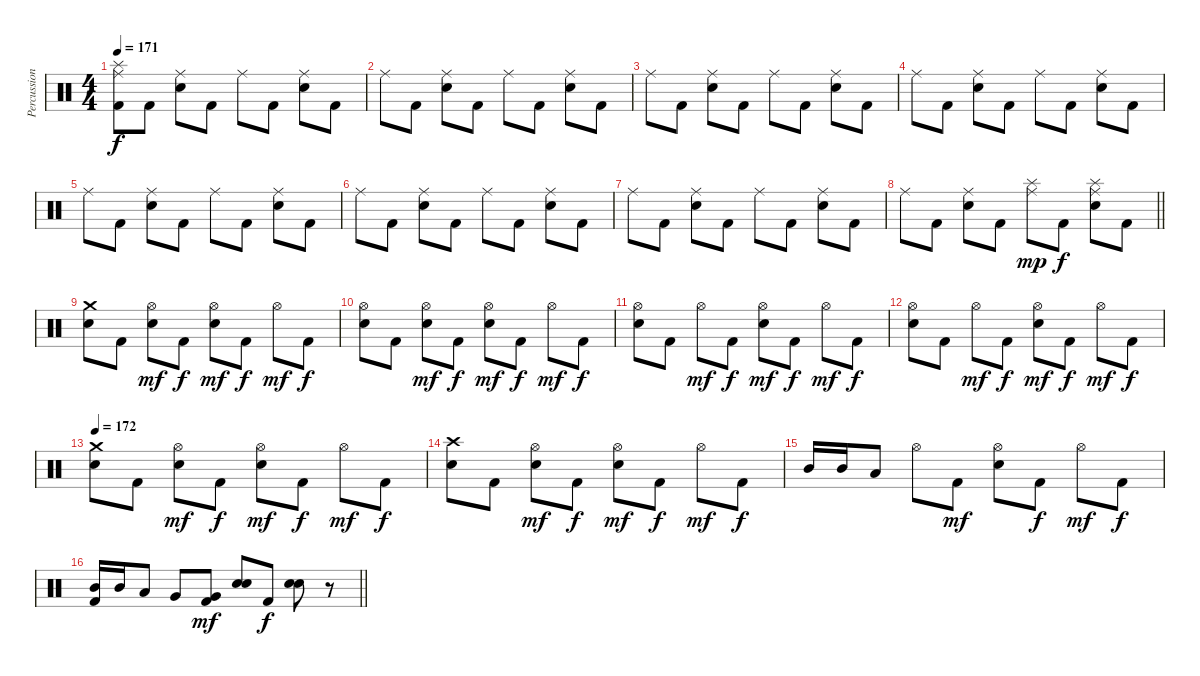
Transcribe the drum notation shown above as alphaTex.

\track ("Percussion" "Percussion") {instrument percussion}
\staff {score}
\articulation defaults
\ts (4 4)
\section ("" "")
\tempo 171
\clef neutral
\ks c
("Ride (middle)" "Splash (hit)" "Kick (hit) 2").8{dy f} "Kick (hit) 2".8 ("Ride (middle)" "Electric Snare (hit)").8 "Kick (hit) 2".8 "Ride (middle)".8 "Kick (hit) 2".8 ("Ride (middle)" "Electric Snare (hit)").8 "Kick (hit) 2".8 |
"Ride (middle)".8 "Kick (hit) 2".8 ("Ride (middle)" "Electric Snare (hit)").8 "Kick (hit) 2".8 "Ride (middle)".8 "Kick (hit) 2".8 ("Ride (middle)" "Electric Snare (hit)").8 "Kick (hit) 2".8 |
"Ride (middle)".8 "Kick (hit) 2".8 ("Ride (middle)" "Electric Snare (hit)").8 "Kick (hit) 2".8 "Ride (middle)".8 "Kick (hit) 2".8 ("Ride (middle)" "Electric Snare (hit)").8 "Kick (hit) 2".8 |
"Ride (middle)".8 "Kick (hit) 2".8 ("Ride (middle)" "Electric Snare (hit)").8 "Kick (hit) 2".8 "Ride (middle)".8 "Kick (hit) 2".8 ("Ride (middle)" "Electric Snare (hit)").8 "Kick (hit) 2".8 |
"Ride (middle)".8 "Kick (hit) 2".8 ("Ride (middle)" "Electric Snare (hit)").8 "Kick (hit) 2".8 "Ride (middle)".8 "Kick (hit) 2".8 ("Ride (middle)" "Electric Snare (hit)").8 "Kick (hit) 2".8 |
"Ride (middle)".8 "Kick (hit) 2".8 ("Ride (middle)" "Electric Snare (hit)").8 "Kick (hit) 2".8 "Ride (middle)".8 "Kick (hit) 2".8 ("Ride (middle)" "Electric Snare (hit)").8 "Kick (hit) 2".8 |
"Ride (middle)".8 "Kick (hit) 2".8 ("Ride (middle)" "Electric Snare (hit)").8 "Kick (hit) 2".8 "Ride (middle)".8 "Kick (hit) 2".8 ("Ride (middle)" "Electric Snare (hit)").8 "Kick (hit) 2".8 |
\barLineRight lightlight "Ride (middle)".8 "Kick (hit) 2".8
("Ride (middle)" "Electric Snare (hit)").8 "Kick (hit) 2".8 ("Ride (middle)" "Splash (hit)").8{dy mp} "Kick (hit) 2".8{dy f} ("Ride (middle)" "Splash (hit)" "Electric Snare (hit)").8 "Kick (hit) 2".8 |
\section ("" "")
("Crash medium (hit)" "Electric Snare (hit)").8 "Kick (hit) 2".8 ("Hi-Hat (open)" "Electric Snare (hit)").8{dy mf} "Kick (hit) 2".8{dy f} ("Hi-Hat (open)" "Electric Snare (hit)").8{dy mf} "Kick (hit) 2".8{dy f} "Hi-Hat (open)".8{dy mf} "Kick (hit) 2".8{dy f} |
("Hi-Hat (open)" "Electric Snare (hit)").8 "Kick (hit) 2".8 ("Hi-Hat (open)" "Electric Snare (hit)").8{dy mf} "Kick (hit) 2".8{dy f} ("Hi-Hat (open)" "Electric Snare (hit)").8{dy mf} "Kick (hit) 2".8{dy f} "Hi-Hat (open)".8{dy mf} "Kick (hit) 2".8{dy f} |
("Hi-Hat (open)" "Electric Snare (hit)").8 "Kick (hit) 2".8 "Hi-Hat (open)".8{dy mf} "Kick (hit) 2".8{dy f} ("Hi-Hat (open)" "Electric Snare (hit)").8{dy mf} "Kick (hit) 2".8{dy f} "Hi-Hat (open)".8{dy mf} "Kick (hit) 2".8{dy f} |
("Hi-Hat (open)" "Electric Snare (hit)").8 "Kick (hit) 2".8 "Hi-Hat (open)".8{dy mf} "Kick (hit) 2".8{dy f} ("Hi-Hat (open)" "Electric Snare (hit)").8{dy mf} "Kick (hit) 2".8{dy f} "Hi-Hat (open)".8{dy mf} "Kick (hit) 2".8{dy f} |
\tempo 172
("Crash medium (hit)" "Electric Snare (hit)").8 "Kick (hit) 2".8 ("Hi-Hat (open)" "Electric Snare (hit)").8{dy mf} "Kick (hit) 2".8{dy f} ("Hi-Hat (open)" "Electric Snare (hit)").8{dy mf} "Kick (hit) 2".8{dy f} "Hi-Hat (open)".8{dy mf} "Kick (hit) 2".8{dy f} |
("Crash high (hit)" "Electric Snare (hit)").8 "Kick (hit) 2".8 ("Hi-Hat (open)" "Electric Snare (hit)").8{dy mf} "Kick (hit) 2".8{dy f} ("Hi-Hat (open)" "Electric Snare (hit)").8{dy mf} "Kick (hit) 2".8{dy f} "Hi-Hat (open)".8{dy mf} "Kick (hit) 2".8{dy f} |
"Mid Tom (hit)".16 "Mid Tom (hit)".16 "Low Tom (hit)".8 "Hi-Hat (open)".8 "Kick (hit) 2".8{dy mf} ("Hi-Hat (open)" "Electric Snare (hit)").8 "Kick (hit) 2".8{dy f} "Hi-Hat (open)".8{dy mf} "Kick (hit) 2".8{dy f} |
\barLineRight lightlight
("Mid Tom (hit)" "Kick (hit) 2").16 "Mid Tom (hit)".16 "Low Tom (hit)".8 "Very Low Tom (hit)".8 ("Very Low Tom (hit)" "Kick (hit) 2").8{dy mf} ("Electric Snare (hit)" "Electric Snare (hit)").8 "Kick (hit) 2".8{dy f} ("Electric Snare (hit)" "Electric Snare (hit)").8 r.8
